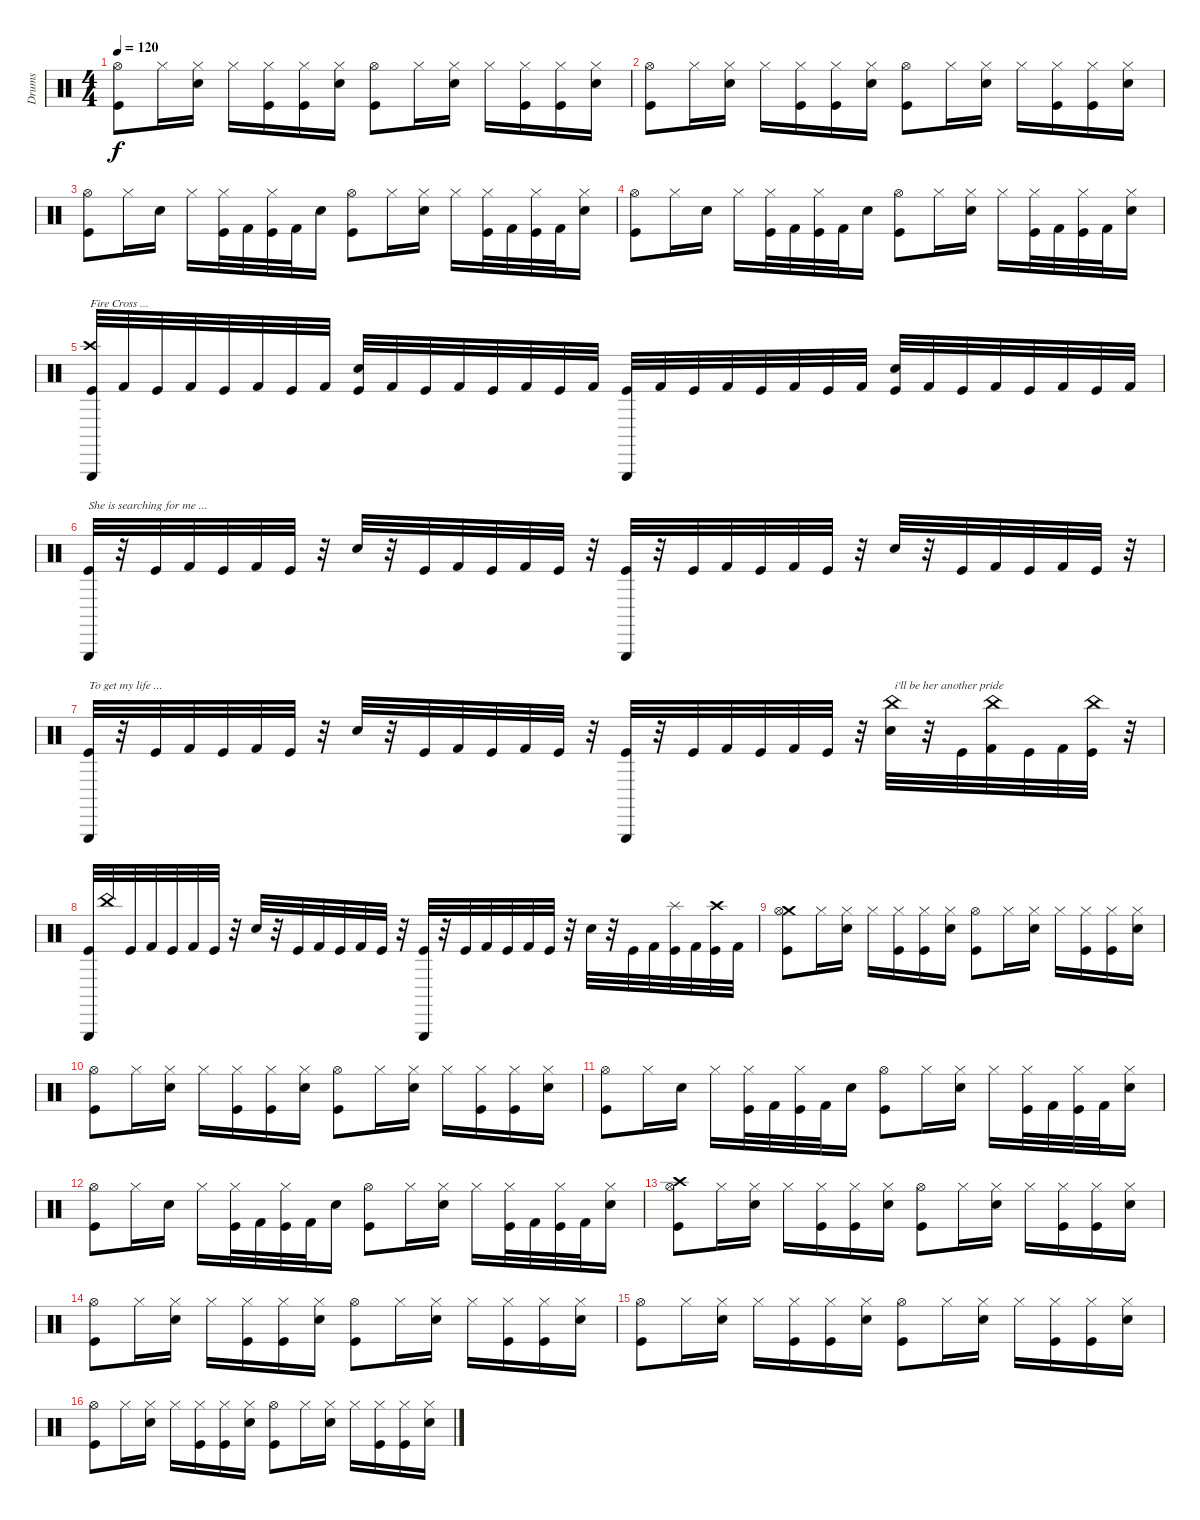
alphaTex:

\track ("Drums" "Drums") {instrument percussion}
\staff {score}
\articulation defaults
\ts (4 4)
\tempo 120
\clef neutral
\ks c
("Hi-Hat (open)" "Kick (hit)").8{dy f} "Hi-Hat (closed)".16 ("Hi-Hat (closed)" "Snare (hit) 2").16 "Hi-Hat (closed)".16 ("Hi-Hat (closed)" "Kick (hit)").16 ("Hi-Hat (closed)" "Kick (hit)").16 ("Hi-Hat (closed)" "Snare (hit) 2").16 ("Hi-Hat (open)" "Kick (hit)").8 "Hi-Hat (closed)".16 ("Hi-Hat (closed)" "Snare (hit) 2").16 "Hi-Hat (closed)".16 ("Hi-Hat (closed)" "Kick (hit)").16 ("Hi-Hat (closed)" "Kick (hit)").16 ("Hi-Hat (closed)" "Snare (hit) 2").16 |
("Hi-Hat (open)" "Kick (hit)").8 "Hi-Hat (closed)".16 ("Hi-Hat (closed)" "Snare (hit) 2").16 "Hi-Hat (closed)".16 ("Hi-Hat (closed)" "Kick (hit)").16 ("Hi-Hat (closed)" "Kick (hit)").16 ("Hi-Hat (closed)" "Snare (hit) 2").16 ("Hi-Hat (open)" "Kick (hit)").8 "Hi-Hat (closed)".16 ("Hi-Hat (closed)" "Snare (hit) 2").16 "Hi-Hat (closed)".16 ("Hi-Hat (closed)" "Kick (hit)").16 ("Hi-Hat (closed)" "Kick (hit)").16 ("Hi-Hat (closed)" "Snare (hit) 2").16 |
("Hi-Hat (open)" "Kick (hit)").8 "Hi-Hat (closed)".16 "Snare (hit) 2".16 "Hi-Hat (closed)".16 ("Hi-Hat (closed)" "Kick (hit)").32 "Kick (hit) 2".32 ("Hi-Hat (closed)" "Kick (hit)").32 "Kick (hit) 2".32 "Snare (hit) 2".16 ("Hi-Hat (open)" "Kick (hit)").8 "Hi-Hat (closed)".16 ("Hi-Hat (closed)" "Snare (hit) 2").16 "Hi-Hat (closed)".16 ("Hi-Hat (closed)" "Kick (hit)").32 "Kick (hit) 2".32 ("Hi-Hat (closed)" "Kick (hit)").32 "Kick (hit) 2".32 ("Hi-Hat (closed)" "Snare (hit) 2").16 |
("Hi-Hat (open)" "Kick (hit)").8 "Hi-Hat (closed)".16 "Snare (hit) 2".16 "Hi-Hat (closed)".16 ("Hi-Hat (closed)" "Kick (hit)").32 "Kick (hit) 2".32 ("Hi-Hat (closed)" "Kick (hit)").32 "Kick (hit) 2".32 "Snare (hit) 2".16 ("Hi-Hat (open)" "Kick (hit)").8 "Hi-Hat (closed)".16 ("Hi-Hat (closed)" "Snare (hit) 2").16 "Hi-Hat (closed)".16 ("Hi-Hat (closed)" "Kick (hit)").32 "Kick (hit) 2".32 ("Hi-Hat (closed)" "Kick (hit)").32 "Kick (hit) 2".32 ("Hi-Hat (closed)" "Snare (hit) 2").16 |
("Crash high (hit)" "Triangle (hit)" "Kick (hit)").32{txt "Fire Cross ..."} "Kick (hit) 2".32 "Kick (hit)".32 "Kick (hit) 2".32 "Kick (hit)".32 "Kick (hit) 2".32 "Kick (hit)".32 "Kick (hit) 2".32 ("Snare (hit) 2" "Kick (hit)").32 "Kick (hit) 2".32 "Kick (hit)".32 "Kick (hit) 2".32 "Kick (hit)".32 "Kick (hit) 2".32 "Kick (hit)".32 "Kick (hit) 2".32 ("Triangle (hit)" "Kick (hit)").32 "Kick (hit) 2".32 "Kick (hit)".32 "Kick (hit) 2".32 "Kick (hit)".32 "Kick (hit) 2".32 "Kick (hit)".32 "Kick (hit) 2".32 ("Snare (hit) 2" "Kick (hit)").32 "Kick (hit) 2".32 "Kick (hit)".32 "Kick (hit) 2".32 "Kick (hit)".32 "Kick (hit) 2".32 "Kick (hit)".32 "Kick (hit) 2".32 |
("Triangle (hit)" "Kick (hit)").32{txt "She is searching for me ..."} r.32 "Kick (hit)".32 "Kick (hit) 2".32 "Kick (hit)".32 "Kick (hit) 2".32 "Kick (hit)".32 r.32 "Snare (hit) 2".32 r.32 "Kick (hit)".32 "Kick (hit) 2".32 "Kick (hit)".32 "Kick (hit) 2".32 "Kick (hit)".32 r.32 ("Triangle (hit)" "Kick (hit)").32 r.32 "Kick (hit)".32 "Kick (hit) 2".32 "Kick (hit)".32 "Kick (hit) 2".32 "Kick (hit)".32 r.32 "Snare (hit) 2".32 r.32 "Kick (hit)".32 "Kick (hit) 2".32 "Kick (hit)".32 "Kick (hit) 2".32 "Kick (hit)".32 r.32 |
("Triangle (hit)" "Kick (hit)").32{txt "To get my life ..."} r.32 "Kick (hit)".32 "Kick (hit) 2".32 "Kick (hit)".32 "Kick (hit) 2".32 "Kick (hit)".32 r.32 "Snare (hit) 2".32 r.32 "Kick (hit)".32 "Kick (hit) 2".32 "Kick (hit)".32 "Kick (hit) 2".32 "Kick (hit)".32 r.32 ("Triangle (hit)" "Kick (hit)").32 r.32 "Kick (hit)".32 "Kick (hit) 2".32 "Kick (hit)".32 "Kick (hit) 2".32 "Kick (hit)".32 r.32 ("China (hit)" "Snare (hit) 2").32{txt "i'll be her another pride"} r.32 "Kick (hit)".32 ("China (hit)" "Kick (hit) 2").32 "Kick (hit)".32 "Kick (hit) 2".32 ("China (hit)" "Kick (hit)").32 r.32 |
("Triangle (hit)" "Kick (hit)").32 "China (hit)".32 "Kick (hit)".32 "Kick (hit) 2".32 "Kick (hit)".32 "Kick (hit) 2".32 "Kick (hit)".32 r.32 "Snare (hit) 2".32 r.32 "Kick (hit)".32 "Kick (hit) 2".32 "Kick (hit)".32 "Kick (hit) 2".32 "Kick (hit)".32 r.32 ("Triangle (hit)" "Kick (hit)").32 r.32 "Kick (hit)".32 "Kick (hit) 2".32 "Kick (hit)".32 "Kick (hit) 2".32 "Kick (hit)".32 r.32 "Snare (hit) 2".32 r.32 "Kick (hit)".32 "Kick (hit) 2".32 ("Splash (hit)" "Kick (hit)").32 "Kick (hit) 2".32 ("Crash high (hit)" "Kick (hit)").32 "Kick (hit) 2".32 |
("Crash medium (hit)" "Hi-Hat (open)" "Kick (hit)").8 "Hi-Hat (closed)".16 ("Hi-Hat (closed)" "Snare (hit) 2").16 "Hi-Hat (closed)".16 ("Hi-Hat (closed)" "Kick (hit)").16 ("Hi-Hat (closed)" "Kick (hit)").16 ("Hi-Hat (closed)" "Snare (hit) 2").16 ("Hi-Hat (open)" "Kick (hit)").8 "Hi-Hat (closed)".16 ("Hi-Hat (closed)" "Snare (hit) 2").16 "Hi-Hat (closed)".16 ("Hi-Hat (closed)" "Kick (hit)").16 ("Hi-Hat (closed)" "Kick (hit)").16 ("Hi-Hat (closed)" "Snare (hit) 2").16 |
("Hi-Hat (open)" "Kick (hit)").8 "Hi-Hat (closed)".16 ("Hi-Hat (closed)" "Snare (hit) 2").16 "Hi-Hat (closed)".16 ("Hi-Hat (closed)" "Kick (hit)").16 ("Hi-Hat (closed)" "Kick (hit)").16 ("Hi-Hat (closed)" "Snare (hit) 2").16 ("Hi-Hat (open)" "Kick (hit)").8 "Hi-Hat (closed)".16 ("Hi-Hat (closed)" "Snare (hit) 2").16 "Hi-Hat (closed)".16 ("Hi-Hat (closed)" "Kick (hit)").16 ("Hi-Hat (closed)" "Kick (hit)").16 ("Hi-Hat (closed)" "Snare (hit) 2").16 |
("Hi-Hat (open)" "Kick (hit)").8 "Hi-Hat (closed)".16 "Snare (hit) 2".16 "Hi-Hat (closed)".16 ("Hi-Hat (closed)" "Kick (hit)").32 "Kick (hit) 2".32 ("Hi-Hat (closed)" "Kick (hit)").32 "Kick (hit) 2".32 "Snare (hit) 2".16 ("Hi-Hat (open)" "Kick (hit)").8 "Hi-Hat (closed)".16 ("Hi-Hat (closed)" "Snare (hit) 2").16 "Hi-Hat (closed)".16 ("Hi-Hat (closed)" "Kick (hit)").32 "Kick (hit) 2".32 ("Hi-Hat (closed)" "Kick (hit)").32 "Kick (hit) 2".32 ("Hi-Hat (closed)" "Snare (hit) 2").16 |
("Hi-Hat (open)" "Kick (hit)").8 "Hi-Hat (closed)".16 "Snare (hit) 2".16 "Hi-Hat (closed)".16 ("Hi-Hat (closed)" "Kick (hit)").32 "Kick (hit) 2".32 ("Hi-Hat (closed)" "Kick (hit)").32 "Kick (hit) 2".32 "Snare (hit) 2".16 ("Hi-Hat (open)" "Kick (hit)").8 "Hi-Hat (closed)".16 ("Hi-Hat (closed)" "Snare (hit) 2").16 "Hi-Hat (closed)".16 ("Hi-Hat (closed)" "Kick (hit)").32 "Kick (hit) 2".32 ("Hi-Hat (closed)" "Kick (hit)").32 "Kick (hit) 2".32 ("Hi-Hat (closed)" "Snare (hit) 2").16 |
("Crash high (hit)" "Hi-Hat (open)" "Kick (hit)").8 "Hi-Hat (closed)".16 ("Hi-Hat (closed)" "Snare (hit) 2").16 "Hi-Hat (closed)".16 ("Hi-Hat (closed)" "Kick (hit)").16 ("Hi-Hat (closed)" "Kick (hit)").16 ("Hi-Hat (closed)" "Snare (hit) 2").16 ("Hi-Hat (open)" "Kick (hit)").8 "Hi-Hat (closed)".16 ("Hi-Hat (closed)" "Snare (hit) 2").16 "Hi-Hat (closed)".16 ("Hi-Hat (closed)" "Kick (hit)").16 ("Hi-Hat (closed)" "Kick (hit)").16 ("Hi-Hat (closed)" "Snare (hit) 2").16 |
("Hi-Hat (open)" "Kick (hit)").8 "Hi-Hat (closed)".16 ("Hi-Hat (closed)" "Snare (hit) 2").16 "Hi-Hat (closed)".16 ("Hi-Hat (closed)" "Kick (hit)").16 ("Hi-Hat (closed)" "Kick (hit)").16 ("Hi-Hat (closed)" "Snare (hit) 2").16 ("Hi-Hat (open)" "Kick (hit)").8 "Hi-Hat (closed)".16 ("Hi-Hat (closed)" "Snare (hit) 2").16 "Hi-Hat (closed)".16 ("Hi-Hat (closed)" "Kick (hit)").16 ("Hi-Hat (closed)" "Kick (hit)").16 ("Hi-Hat (closed)" "Snare (hit) 2").16 |
("Hi-Hat (open)" "Kick (hit)").8 "Hi-Hat (closed)".16 ("Hi-Hat (closed)" "Snare (hit) 2").16 "Hi-Hat (closed)".16 ("Hi-Hat (closed)" "Kick (hit)").16 ("Hi-Hat (closed)" "Kick (hit)").16 ("Hi-Hat (closed)" "Snare (hit) 2").16 ("Hi-Hat (open)" "Kick (hit)").8 "Hi-Hat (closed)".16 ("Hi-Hat (closed)" "Snare (hit) 2").16 "Hi-Hat (closed)".16 ("Hi-Hat (closed)" "Kick (hit)").16 ("Hi-Hat (closed)" "Kick (hit)").16 ("Hi-Hat (closed)" "Snare (hit) 2").16 |
("Hi-Hat (open)" "Kick (hit)").8 "Hi-Hat (closed)".16 ("Hi-Hat (closed)" "Snare (hit) 2").16 "Hi-Hat (closed)".16 ("Hi-Hat (closed)" "Kick (hit)").16 ("Hi-Hat (closed)" "Kick (hit)").16 ("Hi-Hat (closed)" "Snare (hit) 2").16 ("Hi-Hat (open)" "Kick (hit)").8 "Hi-Hat (closed)".16 ("Hi-Hat (closed)" "Snare (hit) 2").16 "Hi-Hat (closed)".16 ("Hi-Hat (closed)" "Kick (hit)").16 ("Hi-Hat (closed)" "Kick (hit)").16 ("Hi-Hat (closed)" "Snare (hit) 2").16
